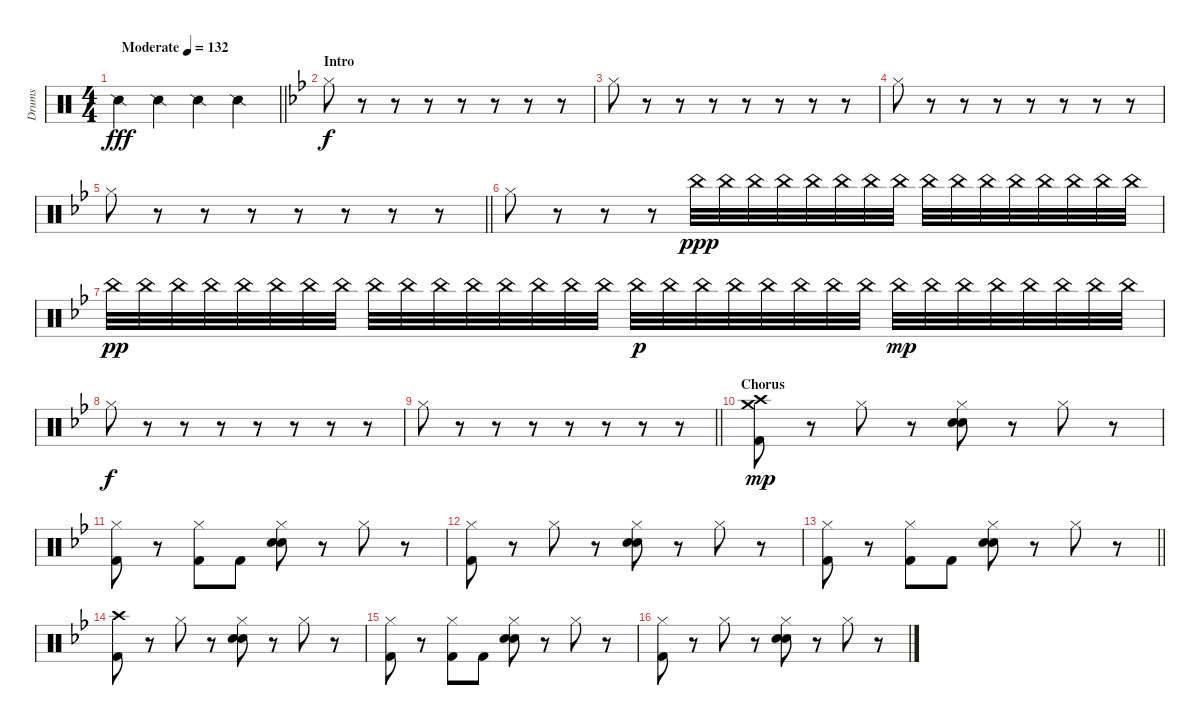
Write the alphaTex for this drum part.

\track ("Drums" "Drums") {instrument percussion}
\staff
\articulation defaults
\ts (4 4)
\tempo (132 "Moderate")
\clef neutral
\barLineRight lightlight
\ks c "Snare (side stick) 2".4{dy fff} "Snare (side stick) 2".4 "Snare (side stick) 2".4 "Snare (side stick) 2".4
|
\section ("" "Intro")
\ks bb "Hi-Hat (closed)".8{dy f}
r.8 r.8 r.8 r.8 r.8 r.8 r.8 |
"Hi-Hat (closed)".8 r.8 r.8 r.8 r.8 r.8 r.8 r.8 |
"Hi-Hat (closed)".8 r.8 r.8 r.8 r.8 r.8 r.8 r.8 |
\barLineRight lightlight "Hi-Hat (closed)".8
r.8 r.8 r.8 r.8 r.8 r.8 r.8 |
"Hi-Hat (closed)".8 r.8 r.8 r.8 "China (hit)".32{dy ppp} "China (hit)".32 "China (hit)".32 "China (hit)".32 "China (hit)".32 "China (hit)".32 "China (hit)".32 "China (hit)".32 "China (hit)".32 "China (hit)".32 "China (hit)".32 "China (hit)".32 "China (hit)".32 "China (hit)".32 "China (hit)".32 "China (hit)".32 |
"China (hit)".32{dy pp} "China (hit)".32 "China (hit)".32 "China (hit)".32 "China (hit)".32 "China (hit)".32 "China (hit)".32 "China (hit)".32 "China (hit)".32 "China (hit)".32 "China (hit)".32 "China (hit)".32 "China (hit)".32 "China (hit)".32 "China (hit)".32 "China (hit)".32 "China (hit)".32{dy p} "China (hit)".32 "China (hit)".32 "China (hit)".32 "China (hit)".32 "China (hit)".32 "China (hit)".32 "China (hit)".32 "China (hit)".32{dy mp} "China (hit)".32 "China (hit)".32 "China (hit)".32 "China (hit)".32 "China (hit)".32 "China (hit)".32 "China (hit)".32 |
"Hi-Hat (closed)".8{dy f} r.8 r.8 r.8 r.8 r.8 r.8 r.8 |
\barLineRight lightlight "Hi-Hat (closed)".8
r.8 r.8 r.8 r.8 r.8 r.8 r.8 |
\section ("" "Chorus")
("Crash high (hit)" "Crash medium (hit)" "Kick (hit) 2").8{dy mp} r.8 "Hi-Hat (closed)".8 r.8 ("Hi-Hat (closed)" "Electric Snare (hit)" "Electric Snare (hit)").8 r.8 "Hi-Hat (closed)".8 r.8 |
("Hi-Hat (closed)" "Kick (hit) 2").8 r.8 ("Hi-Hat (closed)" "Kick (hit) 2").8 "Kick (hit) 2".8 ("Hi-Hat (closed)" "Electric Snare (hit)" "Electric Snare (hit)").8 r.8 "Hi-Hat (closed)".8 r.8 |
("Hi-Hat (closed)" "Kick (hit) 2").8 r.8 "Hi-Hat (closed)".8 r.8 ("Hi-Hat (closed)" "Electric Snare (hit)" "Electric Snare (hit)").8 r.8 "Hi-Hat (closed)".8 r.8 |
\barLineRight lightlight
("Hi-Hat (closed)" "Kick (hit) 2").8 r.8 ("Hi-Hat (closed)" "Kick (hit) 2").8 "Kick (hit) 2".8 ("Hi-Hat (closed)" "Electric Snare (hit)" "Electric Snare (hit)").8 r.8 "Hi-Hat (closed)".8 r.8 |
("Crash high (hit)" "Kick (hit) 2").8 r.8 "Hi-Hat (closed)".8 r.8 ("Hi-Hat (closed)" "Electric Snare (hit)" "Electric Snare (hit)").8 r.8 "Hi-Hat (closed)".8 r.8 |
("Hi-Hat (closed)" "Kick (hit) 2").8 r.8 ("Hi-Hat (closed)" "Kick (hit) 2").8 "Kick (hit) 2".8 ("Hi-Hat (closed)" "Electric Snare (hit)" "Electric Snare (hit)").8 r.8 "Hi-Hat (closed)".8 r.8 |
("Hi-Hat (closed)" "Kick (hit) 2").8 r.8 "Hi-Hat (closed)".8 r.8 ("Hi-Hat (closed)" "Electric Snare (hit)" "Electric Snare (hit)").8 r.8 "Hi-Hat (closed)".8 r.8
